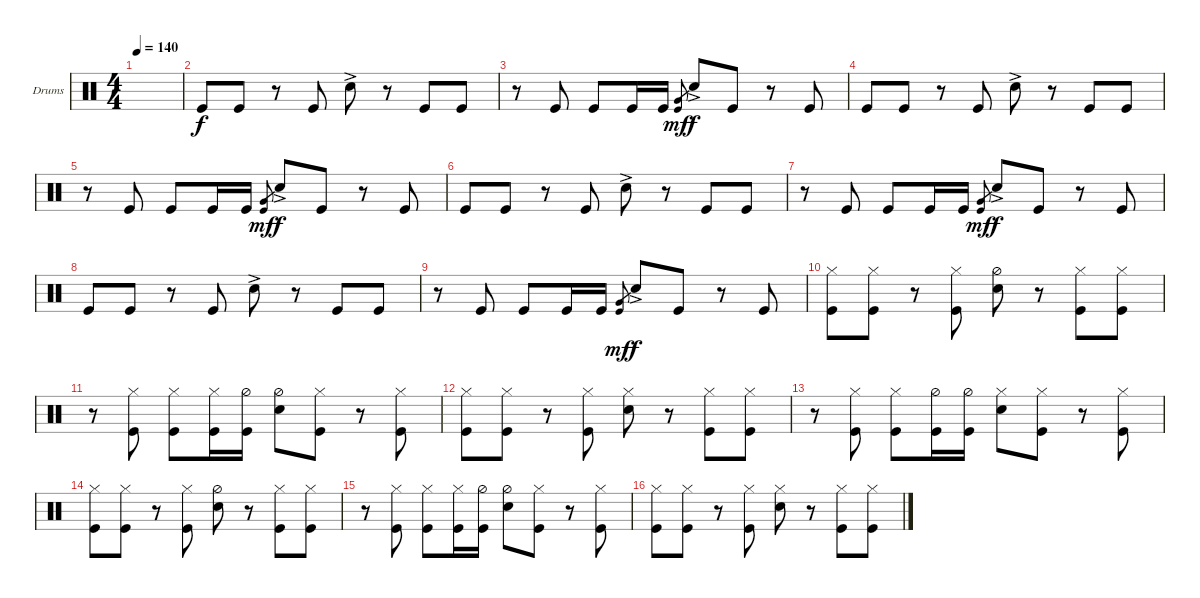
\defaultSystemsLayout 4
\bracketExtendMode groupsimilarinstruments
\firstSystemTrackNameOrientation horizontal
\otherSystemsTrackNameOrientation horizontal
\track ("Drumkit" "Drums") {instrument percussion}
\staff {score}
\articulation defaults
\ts (4 4)
\tempo 140
\clef neutral
\ks c
|
\scale
0.474178 "Kick (hit)".8 "Kick (hit)".8 r.8 "Kick (hit)".8 "Snare (hit) 2"{ac}.8 r.8 "Kick (hit)".8 "Kick (hit)".8 |
\scale
0.262911 r.8 "Kick (hit)".8 "Kick (hit)".8 "Kick (hit)".16 "Kick (hit)".16 ("Very Low Tom (hit)" "Kick (hit)").8{gr dy mf} "Snare (hit) 2"{ac}.8{dy f} "Kick (hit)".8 r.8 "Kick (hit)".8 |
\scale
0.262911 "Kick (hit)".8 "Kick (hit)".8 r.8 "Kick (hit)".8 "Snare (hit) 2"{ac}.8 r.8 "Kick (hit)".8 "Kick (hit)".8 |
r.8 "Kick (hit)".8 "Kick (hit)".8 "Kick (hit)".16 "Kick (hit)".16 ("Very Low Tom (hit)" "Kick (hit)").8{gr dy mf} "Snare (hit) 2"{ac}.8{dy f} "Kick (hit)".8 r.8 "Kick (hit)".8 |
"Kick (hit)".8 "Kick (hit)".8 r.8 "Kick (hit)".8 "Snare (hit) 2"{ac}.8 r.8 "Kick (hit)".8 "Kick (hit)".8 |
r.8 "Kick (hit)".8 "Kick (hit)".8 "Kick (hit)".16 "Kick (hit)".16 ("Very Low Tom (hit)" "Kick (hit)").8{gr dy mf} "Snare (hit) 2"{ac}.8{dy f} "Kick (hit)".8 r.8 "Kick (hit)".8 |
"Kick (hit)".8 "Kick (hit)".8 r.8 "Kick (hit)".8 "Snare (hit) 2"{ac}.8 r.8 "Kick (hit)".8 "Kick (hit)".8 |
r.8 "Kick (hit)".8 "Kick (hit)".8 "Kick (hit)".16 "Kick (hit)".16 ("Very Low Tom (hit)" "Kick (hit)").8{gr dy mf} "Snare (hit) 2"{ac}.8{dy f} "Kick (hit)".8 r.8 "Kick (hit)".8 |
("Hi-Hat (closed)" "Kick (hit)").8 ("Hi-Hat (closed)" "Kick (hit)").8 r.8 ("Hi-Hat (closed)" "Kick (hit)").8 ("Hi-Hat (half)" "Snare (hit) 2").8 r.8 ("Hi-Hat (closed)" "Kick (hit)").8 ("Hi-Hat (closed)" "Kick (hit)").8 |
r.8 ("Hi-Hat (closed)" "Kick (hit)").8 ("Hi-Hat (closed)" "Kick (hit)").8 ("Hi-Hat (closed)" "Kick (hit)").16 ("Hi-Hat (half)" "Kick (hit)").16 ("Hi-Hat (half)" "Snare (hit) 2").8 ("Hi-Hat (closed)" "Kick (hit)").8 r.8 ("Hi-Hat (closed)" "Kick (hit)").8 |
("Hi-Hat (closed)" "Kick (hit)").8 ("Hi-Hat (closed)" "Kick (hit)").8 r.8 ("Hi-Hat (closed)" "Kick (hit)").8 ("Hi-Hat (closed)" "Snare (hit) 2").8 r.8 ("Hi-Hat (closed)" "Kick (hit)").8 ("Hi-Hat (closed)" "Kick (hit)").8 |
r.8 ("Hi-Hat (closed)" "Kick (hit)").8 ("Hi-Hat (closed)" "Kick (hit)").8 ("Hi-Hat (half)" "Kick (hit)").16 ("Hi-Hat (half)" "Kick (hit)").16 ("Hi-Hat (closed)" "Snare (hit) 2").8 ("Hi-Hat (closed)" "Kick (hit)").8 r.8 ("Hi-Hat (closed)" "Kick (hit)").8 |
("Hi-Hat (closed)" "Kick (hit)").8 ("Hi-Hat (closed)" "Kick (hit)").8 r.8 ("Hi-Hat (closed)" "Kick (hit)").8 ("Hi-Hat (half)" "Snare (hit) 2").8 r.8 ("Hi-Hat (closed)" "Kick (hit)").8 ("Hi-Hat (closed)" "Kick (hit)").8 |
r.8 ("Hi-Hat (closed)" "Kick (hit)").8 ("Hi-Hat (closed)" "Kick (hit)").8 ("Hi-Hat (closed)" "Kick (hit)").16 ("Hi-Hat (half)" "Kick (hit)").16 ("Hi-Hat (half)" "Snare (hit) 2").8 ("Hi-Hat (closed)" "Kick (hit)").8 r.8 ("Hi-Hat (closed)" "Kick (hit)").8 |
("Hi-Hat (closed)" "Kick (hit)").8 ("Hi-Hat (closed)" "Kick (hit)").8 r.8 ("Hi-Hat (closed)" "Kick (hit)").8 ("Hi-Hat (closed)" "Snare (hit) 2").8 r.8 ("Hi-Hat (closed)" "Kick (hit)").8 ("Hi-Hat (closed)" "Kick (hit)").8
